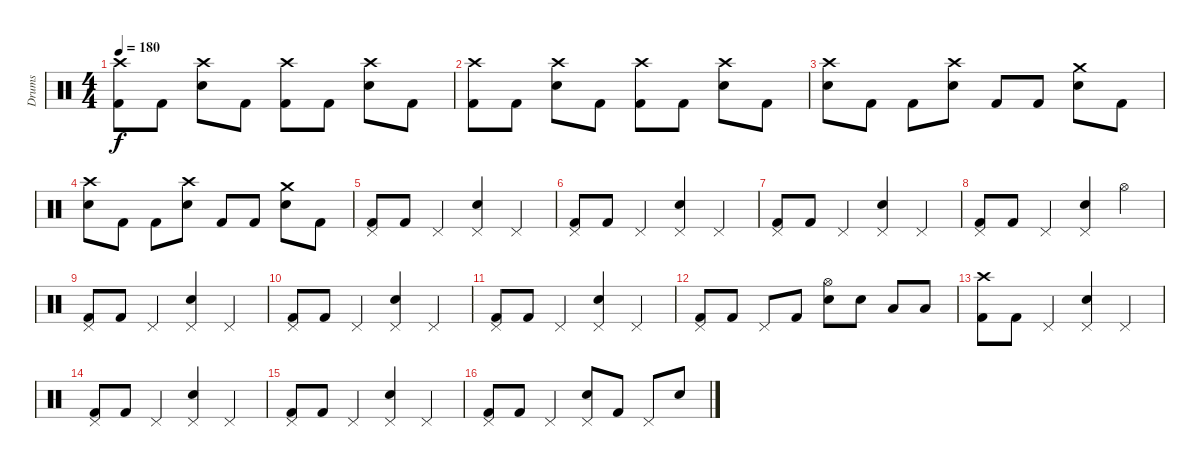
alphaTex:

\track ("Drums" "Drums") {instrument percussion}
\staff {score}
\articulation defaults
\ts (4 4)
\tempo 180
\clef neutral
\ks c
("Crash high (hit)" "Kick (hit) 2").8{dy f} "Kick (hit) 2".8 ("Crash high (hit)" "Electric Snare (hit)").8 "Kick (hit) 2".8 ("Crash high (hit)" "Kick (hit) 2").8 "Kick (hit) 2".8 ("Crash high (hit)" "Electric Snare (hit)").8 "Kick (hit) 2".8 |
("Crash high (hit)" "Kick (hit) 2").8 "Kick (hit) 2".8 ("Crash high (hit)" "Electric Snare (hit)").8 "Kick (hit) 2".8 ("Crash high (hit)" "Kick (hit) 2").8 "Kick (hit) 2".8 ("Crash high (hit)" "Electric Snare (hit)").8 "Kick (hit) 2".8 |
("Crash high (hit)" "Electric Snare (hit)").8 "Kick (hit) 2".8 "Kick (hit) 2".8 ("Crash high (hit)" "Electric Snare (hit)").8 "Kick (hit) 2".8 "Kick (hit) 2".8 ("Crash medium (hit)" "Electric Snare (hit)").8 "Kick (hit) 2".8 |
("Crash high (hit)" "Electric Snare (hit)").8 "Kick (hit) 2".8 "Kick (hit) 2".8 ("Crash high (hit)" "Electric Snare (hit)").8 "Kick (hit) 2".8 "Kick (hit) 2".8 ("Crash medium (hit)" "Electric Snare (hit)").8 "Kick (hit) 2".8 |
("Pedal Hi-Hat (hit)" "Kick (hit) 2").8 "Kick (hit) 2".8 "Pedal Hi-Hat (hit)".4 ("Pedal Hi-Hat (hit)" "Electric Snare (hit)").4 "Pedal Hi-Hat (hit)".4 |
("Pedal Hi-Hat (hit)" "Kick (hit) 2").8 "Kick (hit) 2".8 "Pedal Hi-Hat (hit)".4 ("Pedal Hi-Hat (hit)" "Electric Snare (hit)").4 "Pedal Hi-Hat (hit)".4 |
("Pedal Hi-Hat (hit)" "Kick (hit) 2").8 "Kick (hit) 2".8 "Pedal Hi-Hat (hit)".4 ("Pedal Hi-Hat (hit)" "Electric Snare (hit)").4 "Pedal Hi-Hat (hit)".4 |
("Pedal Hi-Hat (hit)" "Kick (hit) 2").8 "Kick (hit) 2".8 "Pedal Hi-Hat (hit)".4 ("Pedal Hi-Hat (hit)" "Electric Snare (hit)").4 "Hi-Hat (open)".4 |
("Pedal Hi-Hat (hit)" "Kick (hit) 2").8 "Kick (hit) 2".8 "Pedal Hi-Hat (hit)".4 ("Pedal Hi-Hat (hit)" "Electric Snare (hit)").4 "Pedal Hi-Hat (hit)".4 |
("Pedal Hi-Hat (hit)" "Kick (hit) 2").8 "Kick (hit) 2".8 "Pedal Hi-Hat (hit)".4 ("Pedal Hi-Hat (hit)" "Electric Snare (hit)").4 "Pedal Hi-Hat (hit)".4 |
("Pedal Hi-Hat (hit)" "Kick (hit) 2").8 "Kick (hit) 2".8 "Pedal Hi-Hat (hit)".4 ("Pedal Hi-Hat (hit)" "Electric Snare (hit)").4 "Pedal Hi-Hat (hit)".4 |
("Pedal Hi-Hat (hit)" "Kick (hit) 2").8 "Kick (hit) 2".8 "Pedal Hi-Hat (hit)".8 "Kick (hit) 2".8 ("Hi-Hat (open)" "Electric Snare (hit)").8 "Electric Snare (hit)".8 "Low Tom (hit)".8 "Low Tom (hit)".8 |
("Crash high (hit)" "Kick (hit) 2").8 "Kick (hit) 2".8 "Pedal Hi-Hat (hit)".4 ("Pedal Hi-Hat (hit)" "Electric Snare (hit)").4 "Pedal Hi-Hat (hit)".4 |
("Pedal Hi-Hat (hit)" "Kick (hit) 2").8 "Kick (hit) 2".8 "Pedal Hi-Hat (hit)".4 ("Pedal Hi-Hat (hit)" "Electric Snare (hit)").4 "Pedal Hi-Hat (hit)".4 |
("Pedal Hi-Hat (hit)" "Kick (hit) 2").8 "Kick (hit) 2".8 "Pedal Hi-Hat (hit)".4 ("Pedal Hi-Hat (hit)" "Electric Snare (hit)").4 "Pedal Hi-Hat (hit)".4 |
("Pedal Hi-Hat (hit)" "Kick (hit) 2").8 "Kick (hit) 2".8 "Pedal Hi-Hat (hit)".4 ("Pedal Hi-Hat (hit)" "Electric Snare (hit)").8 "Kick (hit) 2".8 "Pedal Hi-Hat (hit)".8 "Electric Snare (hit)".8
